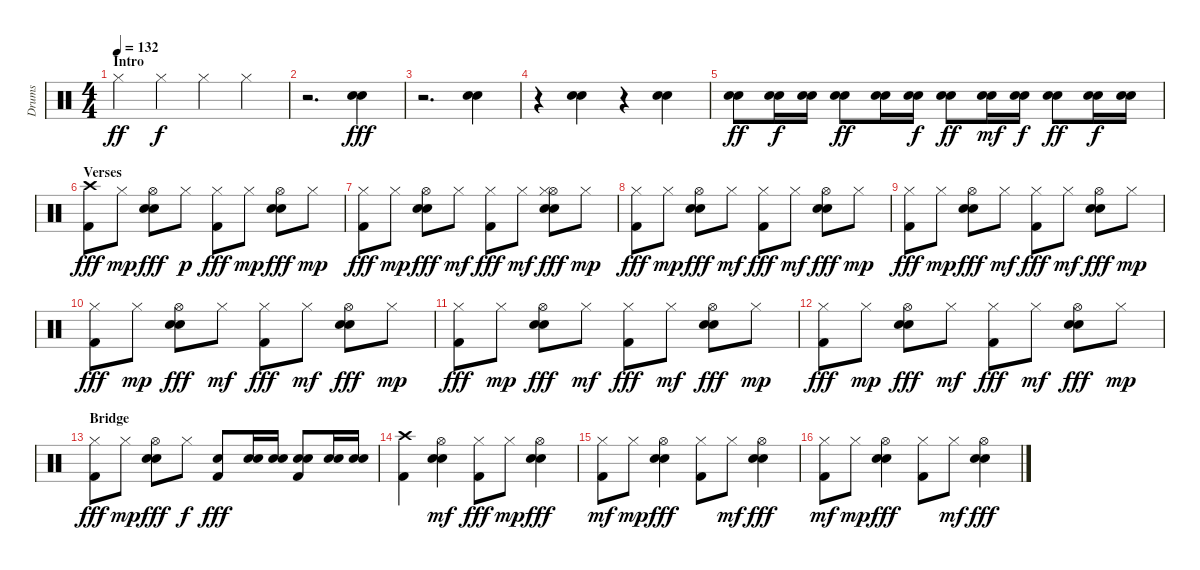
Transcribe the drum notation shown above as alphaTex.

\track ("Drums" "Drums") {instrument percussion}
\staff {score}
\articulation defaults
\ts (4 4)
\section ("" "Intro ")
\tempo 132
\clef neutral
\ks c "Hi-Hat (closed)".4{dy ff} "Hi-Hat (closed)".4{dy f} "Hi-Hat (closed)".4 "Hi-Hat (closed)".4
|
r.2{d} ("Snare (hit) 2" "Electric Snare (hit)").4{dy fff} |
r.2{d} ("Snare (hit) 2" "Electric Snare (hit)").4 |
r.4 ("Snare (hit) 2" "Electric Snare (hit)").4 r.4 ("Snare (hit) 2" "Electric Snare (hit)").4 |
("Snare (hit) 2" "Electric Snare (hit)").8{dy ff} ("Snare (hit) 2" "Electric Snare (hit)").16{dy f} ("Snare (hit) 2" "Electric Snare (hit)").16 ("Snare (hit) 2" "Electric Snare (hit)").8{dy ff} ("Snare (hit) 2" "Electric Snare (hit)").16 ("Snare (hit) 2" "Electric Snare (hit)").16{dy f} ("Snare (hit) 2" "Electric Snare (hit)").8{dy ff} ("Snare (hit) 2" "Electric Snare (hit)").16{dy mf} ("Snare (hit) 2" "Electric Snare (hit)").16{dy f} ("Snare (hit) 2" "Electric Snare (hit)").8{dy ff} ("Snare (hit) 2" "Electric Snare (hit)").16{dy f} ("Snare (hit) 2" "Electric Snare (hit)").16 |
\section ("" "Verses")
("Kick (hit) 2" "Crash high (hit)").8{dy fff} "Hi-Hat (closed)".8{dy mp} ("Hi-Hat (open)" "Snare (hit) 2" "Electric Snare (hit)").8{dy fff} "Hi-Hat (closed)".8{dy p} ("Hi-Hat (closed)" "Kick (hit) 2").8{dy fff} "Hi-Hat (closed)".8{dy mp} ("Hi-Hat (open)" "Snare (hit) 2" "Electric Snare (hit)").8{dy fff} "Hi-Hat (closed)".8{dy mp} |
("Kick (hit) 2" "Hi-Hat (closed)").8{dy fff} "Hi-Hat (closed)".8{dy mp} ("Hi-Hat (open)" "Snare (hit) 2" "Electric Snare (hit)").8{dy fff} "Hi-Hat (closed)".8{dy mf} ("Hi-Hat (closed)" "Kick (hit) 2").8{dy fff} "Hi-Hat (closed)".8{dy mf} ("Hi-Hat (open)" "Snare (hit) 2" "Electric Snare (hit)" "Hi-Hat (closed)").8{dy fff} "Hi-Hat (closed)".8{dy mp} |
("Kick (hit) 2" "Hi-Hat (closed)").8{dy fff} "Hi-Hat (closed)".8{dy mp} ("Hi-Hat (open)" "Snare (hit) 2" "Electric Snare (hit)").8{dy fff} "Hi-Hat (closed)".8{dy mf} ("Hi-Hat (closed)" "Kick (hit) 2").8{dy fff} "Hi-Hat (closed)".8{dy mf} ("Hi-Hat (open)" "Snare (hit) 2" "Electric Snare (hit)").8{dy fff} "Hi-Hat (closed)".8{dy mp} |
("Kick (hit) 2" "Hi-Hat (closed)").8{dy fff} "Hi-Hat (closed)".8{dy mp} ("Hi-Hat (open)" "Snare (hit) 2" "Electric Snare (hit)").8{dy fff} "Hi-Hat (closed)".8{dy mf} ("Hi-Hat (closed)" "Kick (hit) 2").8{dy fff} "Hi-Hat (closed)".8{dy mf} ("Hi-Hat (open)" "Snare (hit) 2" "Electric Snare (hit)").8{dy fff} "Hi-Hat (closed)".8{dy mp} |
("Kick (hit) 2" "Hi-Hat (closed)").8{dy fff} "Hi-Hat (closed)".8{dy mp} ("Hi-Hat (open)" "Snare (hit) 2" "Electric Snare (hit)").8{dy fff} "Hi-Hat (closed)".8{dy mf} ("Hi-Hat (closed)" "Kick (hit) 2").8{dy fff} "Hi-Hat (closed)".8{dy mf} ("Hi-Hat (open)" "Snare (hit) 2" "Electric Snare (hit)").8{dy fff} "Hi-Hat (closed)".8{dy mp} |
("Kick (hit) 2" "Hi-Hat (closed)").8{dy fff} "Hi-Hat (closed)".8{dy mp} ("Hi-Hat (open)" "Snare (hit) 2" "Electric Snare (hit)").8{dy fff} "Hi-Hat (closed)".8{dy mf} ("Hi-Hat (closed)" "Kick (hit) 2").8{dy fff} "Hi-Hat (closed)".8{dy mf} ("Hi-Hat (open)" "Snare (hit) 2" "Electric Snare (hit)").8{dy fff} "Hi-Hat (closed)".8{dy mp} |
("Kick (hit) 2" "Hi-Hat (closed)").8{dy fff} "Hi-Hat (closed)".8{dy mp} ("Hi-Hat (open)" "Snare (hit) 2" "Electric Snare (hit)").8{dy fff} "Hi-Hat (closed)".8{dy mf} ("Hi-Hat (closed)" "Kick (hit) 2").8{dy fff} "Hi-Hat (closed)".8{dy mf} ("Hi-Hat (open)" "Snare (hit) 2" "Electric Snare (hit)").8{dy fff} "Hi-Hat (closed)".8{dy mp} |
\section ("" "Bridge")
("Hi-Hat (closed)" "Kick (hit) 2").8{dy fff} "Hi-Hat (closed)".8{dy mp} ("Hi-Hat (open)" "Snare (hit) 2" "Electric Snare (hit)").8{dy fff} "Hi-Hat (closed)".8{dy f} ("Snare (hit) 2" "Kick (hit) 2").8{dy fff} ("Snare (hit) 2" "Electric Snare (hit)").16 ("Snare (hit) 2" "Electric Snare (hit)").16 ("Snare (hit) 2" "Kick (hit) 2" "Electric Snare (hit)").8 ("Snare (hit) 2" "Electric Snare (hit)").16 ("Snare (hit) 2" "Electric Snare (hit)").16 |
("Kick (hit) 2" "Crash high (hit)").4 ("Snare (hit) 2" "Hi-Hat (open)" "Electric Snare (hit)").4{dy mf} ("Hi-Hat (closed)" "Kick (hit) 2").8{dy fff} "Hi-Hat (closed)".8{dy mp} ("Hi-Hat (open)" "Snare (hit) 2" "Electric Snare (hit)").4{dy fff} |
("Kick (hit) 2" "Hi-Hat (closed)").8{dy mf} "Hi-Hat (closed)".8{dy mp} ("Hi-Hat (open)" "Snare (hit) 2" "Electric Snare (hit)").4{dy fff} ("Kick (hit) 2" "Hi-Hat (closed)").8 "Hi-Hat (closed)".8{dy mf} ("Hi-Hat (open)" "Snare (hit) 2" "Electric Snare (hit)").4{dy fff} |
("Kick (hit) 2" "Hi-Hat (closed)").8{dy mf} "Hi-Hat (closed)".8{dy mp} ("Hi-Hat (open)" "Snare (hit) 2" "Electric Snare (hit)").4{dy fff} ("Kick (hit) 2" "Hi-Hat (closed)").8 "Hi-Hat (closed)".8{dy mf} ("Hi-Hat (open)" "Snare (hit) 2" "Electric Snare (hit)").4{dy fff}
